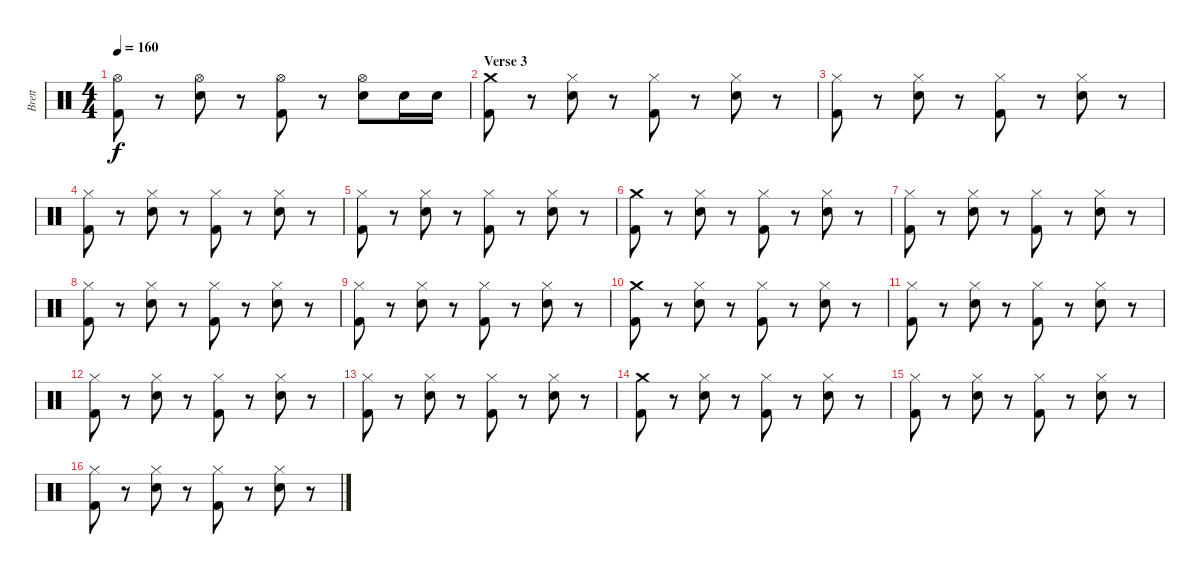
\track ("Brett" "Brett") {instrument percussion}
\staff {score}
\articulation defaults
\ts (4 4)
\tempo 160
\clef neutral
\ks c
("Hi-Hat (open)" "Kick (hit) 2").8{dy f} r.8 ("Hi-Hat (open)" "Snare (hit) 2").8 r.8 ("Hi-Hat (open)" "Kick (hit) 2").8 r.8 ("Hi-Hat (open)" "Snare (hit) 2").8 "Snare (hit) 2".16 "Snare (hit) 2".16 |
\section ("" "Verse 3")
("Crash medium (hit)" "Kick (hit) 2").8 r.8 ("Hi-Hat (closed)" "Snare (hit) 2").8 r.8 ("Hi-Hat (closed)" "Kick (hit) 2").8 r.8 ("Hi-Hat (closed)" "Snare (hit) 2").8 r.8 |
("Hi-Hat (closed)" "Kick (hit) 2").8 r.8 ("Hi-Hat (closed)" "Snare (hit) 2").8 r.8 ("Hi-Hat (closed)" "Kick (hit) 2").8 r.8 ("Hi-Hat (closed)" "Snare (hit) 2").8 r.8 |
("Hi-Hat (closed)" "Kick (hit) 2").8 r.8 ("Hi-Hat (closed)" "Snare (hit) 2").8 r.8 ("Hi-Hat (closed)" "Kick (hit) 2").8 r.8 ("Hi-Hat (closed)" "Snare (hit) 2").8 r.8 |
("Hi-Hat (closed)" "Kick (hit) 2").8 r.8 ("Hi-Hat (closed)" "Snare (hit) 2").8 r.8 ("Hi-Hat (closed)" "Kick (hit) 2").8 r.8 ("Hi-Hat (closed)" "Snare (hit) 2").8 r.8 |
("Crash medium (hit)" "Kick (hit) 2").8 r.8 ("Hi-Hat (closed)" "Snare (hit) 2").8 r.8 ("Hi-Hat (closed)" "Kick (hit) 2").8 r.8 ("Hi-Hat (closed)" "Snare (hit) 2").8 r.8 |
("Hi-Hat (closed)" "Kick (hit) 2").8 r.8 ("Hi-Hat (closed)" "Snare (hit) 2").8 r.8 ("Hi-Hat (closed)" "Kick (hit) 2").8 r.8 ("Hi-Hat (closed)" "Snare (hit) 2").8 r.8 |
("Hi-Hat (closed)" "Kick (hit) 2").8 r.8 ("Hi-Hat (closed)" "Snare (hit) 2").8 r.8 ("Hi-Hat (closed)" "Kick (hit) 2").8 r.8 ("Hi-Hat (closed)" "Snare (hit) 2").8 r.8 |
("Hi-Hat (closed)" "Kick (hit) 2").8 r.8 ("Hi-Hat (closed)" "Snare (hit) 2").8 r.8 ("Hi-Hat (closed)" "Kick (hit) 2").8 r.8 ("Hi-Hat (closed)" "Snare (hit) 2").8 r.8 |
("Crash medium (hit)" "Kick (hit) 2").8 r.8 ("Hi-Hat (closed)" "Snare (hit) 2").8 r.8 ("Hi-Hat (closed)" "Kick (hit) 2").8 r.8 ("Hi-Hat (closed)" "Snare (hit) 2").8 r.8 |
("Hi-Hat (closed)" "Kick (hit) 2").8 r.8 ("Hi-Hat (closed)" "Snare (hit) 2").8 r.8 ("Hi-Hat (closed)" "Kick (hit) 2").8 r.8 ("Hi-Hat (closed)" "Snare (hit) 2").8 r.8 |
("Hi-Hat (closed)" "Kick (hit) 2").8 r.8 ("Hi-Hat (closed)" "Snare (hit) 2").8 r.8 ("Hi-Hat (closed)" "Kick (hit) 2").8 r.8 ("Hi-Hat (closed)" "Snare (hit) 2").8 r.8 |
("Hi-Hat (closed)" "Kick (hit) 2").8 r.8 ("Hi-Hat (closed)" "Snare (hit) 2").8 r.8 ("Hi-Hat (closed)" "Kick (hit) 2").8 r.8 ("Hi-Hat (closed)" "Snare (hit) 2").8 r.8 |
("Crash medium (hit)" "Kick (hit) 2").8 r.8 ("Hi-Hat (closed)" "Snare (hit) 2").8 r.8 ("Hi-Hat (closed)" "Kick (hit) 2").8 r.8 ("Hi-Hat (closed)" "Snare (hit) 2").8 r.8 |
("Hi-Hat (closed)" "Kick (hit) 2").8 r.8 ("Hi-Hat (closed)" "Snare (hit) 2").8 r.8 ("Hi-Hat (closed)" "Kick (hit) 2").8 r.8 ("Hi-Hat (closed)" "Snare (hit) 2").8 r.8 |
("Hi-Hat (closed)" "Kick (hit) 2").8 r.8 ("Hi-Hat (closed)" "Snare (hit) 2").8 r.8 ("Hi-Hat (closed)" "Kick (hit) 2").8 r.8 ("Hi-Hat (closed)" "Snare (hit) 2").8 r.8
